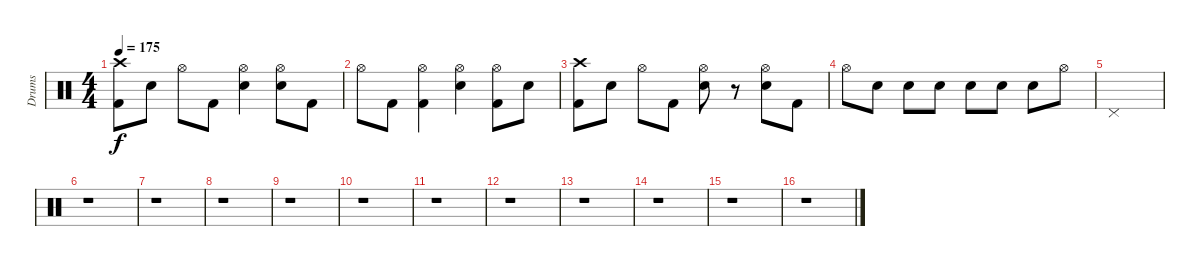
\track ("Drums" "Drums") {instrument percussion}
\staff {score}
\articulation defaults
\ts (4 4)
\tempo 175
\clef neutral
\ks c
("Crash high (hit)" "Kick (hit) 2").8{dy f} "Electric Snare (hit)".8 "Hi-Hat (open)".8 "Kick (hit) 2".8 ("Hi-Hat (open)" "Electric Snare (hit)").4 ("Hi-Hat (open)" "Electric Snare (hit)").8 "Kick (hit) 2".8 |
"Hi-Hat (open)".8 "Kick (hit) 2".8 ("Hi-Hat (open)" "Kick (hit) 2").4 ("Hi-Hat (open)" "Electric Snare (hit)").4 ("Hi-Hat (open)" "Kick (hit) 2").8 "Electric Snare (hit)".8 |
("Crash high (hit)" "Kick (hit) 2").8 "Electric Snare (hit)".8 "Hi-Hat (open)".8 "Kick (hit) 2".8 ("Hi-Hat (open)" "Electric Snare (hit)").8 r.8 ("Hi-Hat (open)" "Electric Snare (hit)").8 "Kick (hit) 2".8 |
"Hi-Hat (open)".8 "Electric Snare (hit)".8 "Electric Snare (hit)".8 "Electric Snare (hit)".8 "Electric Snare (hit)".8 "Electric Snare (hit)".8 "Electric Snare (hit)".8 "Hi-Hat (open)".8 |
"Pedal Hi-Hat (hit)".1 |
r.1 |
r.1 |
r.1 |
r.1 |
r.1 |
r.1 |
r.1 |
r.1 |
r.1 |
r.1 |
r.1
